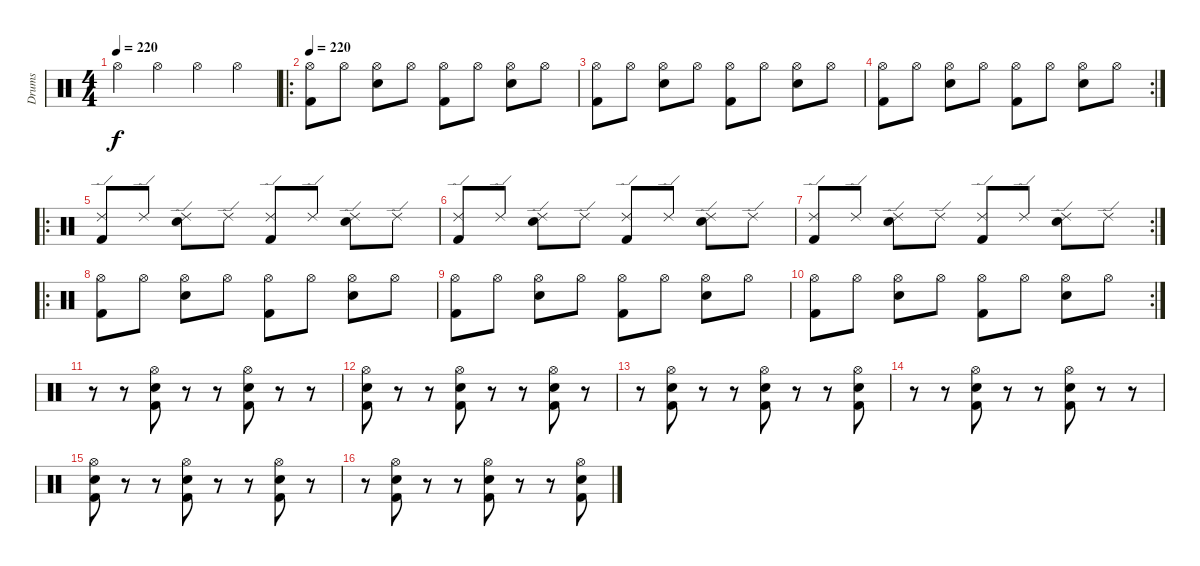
\track ("Drums" "Drums") {instrument percussion}
\staff {score}
\articulation defaults
\ts (4 4)
\tempo 220
\tempo 160
\tempo 220
\clef neutral
\ks c "Hi-Hat (open)".4{dy f} "Hi-Hat (open)".4 "Hi-Hat (open)".4 "Hi-Hat (open)".4
|
\ro
\tempo 220
("Kick (hit) 2" "Hi-Hat (open)").8 "Hi-Hat (open)".8 ("Electric Snare (hit)" "Hi-Hat (open)").8 "Hi-Hat (open)".8 ("Kick (hit) 2" "Hi-Hat (open)").8 "Hi-Hat (open)".8 ("Electric Snare (hit)" "Hi-Hat (open)").8 "Hi-Hat (open)".8 |
("Kick (hit) 2" "Hi-Hat (open)").8 "Hi-Hat (open)".8 ("Electric Snare (hit)" "Hi-Hat (open)").8 "Hi-Hat (open)".8 ("Kick (hit) 2" "Hi-Hat (open)").8 "Hi-Hat (open)".8 ("Electric Snare (hit)" "Hi-Hat (open)").8 "Hi-Hat (open)".8 |
\rc 2
("Kick (hit) 2" "Hi-Hat (open)").8 "Hi-Hat (open)".8 ("Electric Snare (hit)" "Hi-Hat (open)").8 "Hi-Hat (open)".8 ("Kick (hit) 2" "Hi-Hat (open)").8 "Hi-Hat (open)".8 ("Electric Snare (hit)" "Hi-Hat (open)").8 "Hi-Hat (open)".8 |
\ro
("Kick (hit) 2" "Ride (edge) 2").8 "Ride (edge) 2".8 ("Electric Snare (hit)" "Ride (edge) 2").8 "Ride (edge) 2".8 ("Kick (hit) 2" "Ride (edge) 2").8 "Ride (edge) 2".8 ("Electric Snare (hit)" "Ride (edge) 2").8 "Ride (edge) 2".8 |
("Kick (hit) 2" "Ride (edge) 2").8 "Ride (edge) 2".8 ("Electric Snare (hit)" "Ride (edge) 2").8 "Ride (edge) 2".8 ("Kick (hit) 2" "Ride (edge) 2").8 "Ride (edge) 2".8 ("Electric Snare (hit)" "Ride (edge) 2").8 "Ride (edge) 2".8 |
\rc 2
("Kick (hit) 2" "Ride (edge) 2").8 "Ride (edge) 2".8 ("Electric Snare (hit)" "Ride (edge) 2").8 "Ride (edge) 2".8 ("Kick (hit) 2" "Ride (edge) 2").8 "Ride (edge) 2".8 ("Electric Snare (hit)" "Ride (edge) 2").8 "Ride (edge) 2".8 |
\ro
("Kick (hit) 2" "Hi-Hat (open)").8 "Hi-Hat (open)".8 ("Electric Snare (hit)" "Hi-Hat (open)").8 "Hi-Hat (open)".8 ("Kick (hit) 2" "Hi-Hat (open)").8 "Hi-Hat (open)".8 ("Electric Snare (hit)" "Hi-Hat (open)").8 "Hi-Hat (open)".8 |
("Kick (hit) 2" "Hi-Hat (open)").8 "Hi-Hat (open)".8 ("Electric Snare (hit)" "Hi-Hat (open)").8 "Hi-Hat (open)".8 ("Kick (hit) 2" "Hi-Hat (open)").8 "Hi-Hat (open)".8 ("Electric Snare (hit)" "Hi-Hat (open)").8 "Hi-Hat (open)".8 |
\rc 2
("Kick (hit) 2" "Hi-Hat (open)").8 "Hi-Hat (open)".8 ("Electric Snare (hit)" "Hi-Hat (open)").8 "Hi-Hat (open)".8 ("Kick (hit) 2" "Hi-Hat (open)").8 "Hi-Hat (open)".8 ("Electric Snare (hit)" "Hi-Hat (open)").8 "Hi-Hat (open)".8 |
r.8 r.8 ("Kick (hit) 2" "Electric Snare (hit)" "Hi-Hat (open)").8 r.8 r.8 ("Kick (hit) 2" "Electric Snare (hit)" "Hi-Hat (open)").8 r.8 r.8 |
("Kick (hit) 2" "Electric Snare (hit)" "Hi-Hat (open)").8 r.8 r.8 ("Kick (hit) 2" "Electric Snare (hit)" "Hi-Hat (open)").8 r.8 r.8 ("Kick (hit) 2" "Electric Snare (hit)" "Hi-Hat (open)").8 r.8 |
r.8 ("Kick (hit) 2" "Electric Snare (hit)" "Hi-Hat (open)").8 r.8 r.8 ("Kick (hit) 2" "Electric Snare (hit)" "Hi-Hat (open)").8 r.8 r.8 ("Kick (hit) 2" "Electric Snare (hit)" "Hi-Hat (open)").8 |
r.8 r.8 ("Kick (hit) 2" "Electric Snare (hit)" "Hi-Hat (open)").8 r.8 r.8 ("Kick (hit) 2" "Electric Snare (hit)" "Hi-Hat (open)").8 r.8 r.8 |
("Kick (hit) 2" "Electric Snare (hit)" "Hi-Hat (open)").8 r.8 r.8 ("Kick (hit) 2" "Electric Snare (hit)" "Hi-Hat (open)").8 r.8 r.8 ("Kick (hit) 2" "Electric Snare (hit)" "Hi-Hat (open)").8 r.8 |
r.8 ("Kick (hit) 2" "Electric Snare (hit)" "Hi-Hat (open)").8 r.8 r.8 ("Kick (hit) 2" "Electric Snare (hit)" "Hi-Hat (open)").8 r.8 r.8 ("Kick (hit) 2" "Electric Snare (hit)" "Hi-Hat (open)").8
